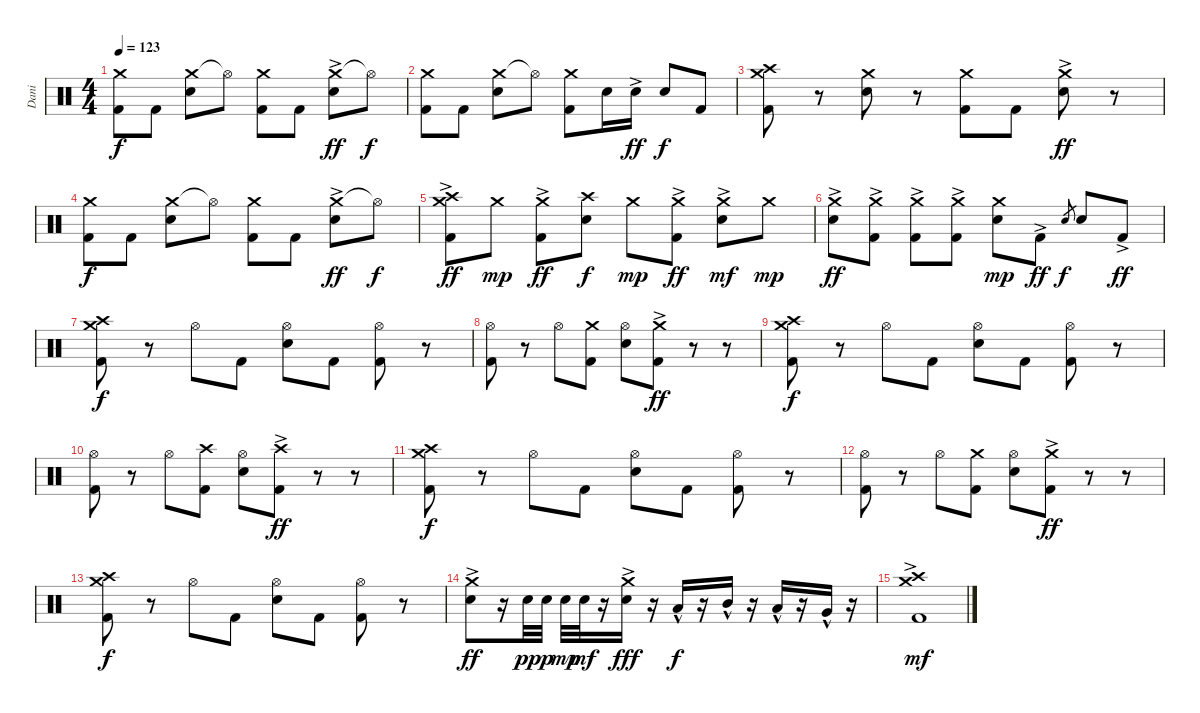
\track ("Dani" "Dani") {instrument percussion}
\staff {score}
\articulation defaults
\ts (4 4)
\tempo 123
\clef neutral
\ks c
("Crash medium (hit)" "Kick (hit) 2").8{dy f} "Kick (hit) 2".8 ("Crash medium (hit)" "Snare (hit) 2").8 "Hi-Hat (open)"{t}.8 ("Crash medium (hit)" "Kick (hit) 2").8 "Kick (hit) 2".8 ("Crash medium (hit)" "Snare (hit) 2"{ac}).8{dy ff} "Hi-Hat (open)"{t}.8{dy f} |
("Crash medium (hit)" "Kick (hit) 2").8 "Kick (hit) 2".8 ("Crash medium (hit)" "Snare (hit) 2").8 "Hi-Hat (open)"{t}.8 ("Crash medium (hit)" "Kick (hit) 2").8 "Snare (hit) 2".16 "Snare (hit) 2"{ac}.16{dy ff} "Snare (hit) 2".8{dy f} "Kick (hit) 2".8 |
("Crash high (hit)" "Crash medium (hit)" "Kick (hit) 2").8 r.8 ("Crash medium (hit)" "Snare (hit) 2").8 r.8 ("Crash medium (hit)" "Kick (hit) 2").8 "Kick (hit) 2".8 ("Crash medium (hit)" "Snare (hit) 2"{ac}).8{dy ff} r.8 |
("Crash medium (hit)" "Kick (hit) 2").8{dy f} "Kick (hit) 2".8 ("Crash medium (hit)" "Snare (hit) 2").8 "Hi-Hat (open)"{t}.8 ("Crash medium (hit)" "Kick (hit) 2").8 "Kick (hit) 2".8 ("Crash medium (hit)" "Snare (hit) 2"{ac}).8{dy ff} "Hi-Hat (open)"{t}.8{dy f} |
("Crash high (hit)" "Crash medium (hit)" "Kick (hit) 2"{ac}).8{dy ff} "Crash medium (hit)".8{dy mp} ("Crash medium (hit)" "Kick (hit) 2"{ac}).8{dy ff} ("Crash high (hit)" "Snare (hit) 2").8{dy f} "Crash medium (hit)".8{dy mp} ("Crash medium (hit)" "Kick (hit) 2"{ac}).8{dy ff} ("Crash medium (hit)" "Snare (hit) 2"{ac}).8{dy mf} "Crash medium (hit)".8{dy mp} |
("Crash medium (hit)"{ac} "Snare (hit) 2").8{dy ff} ("Crash medium (hit)" "Kick (hit) 2"{ac}).8 ("Crash medium (hit)" "Kick (hit) 2"{ac}).8 ("Crash medium (hit)" "Kick (hit) 2"{ac}).8 ("Crash medium (hit)" "Snare (hit) 2").8{dy mp} "Kick (hit) 2"{ac}.8{dy ff} "Snare (hit) 2".8{gr dy f} "Snare (hit) 2".8 "Kick (hit) 2"{ac}.8{dy ff} |
("Crash high (hit)" "Crash medium (hit)" "Kick (hit) 2").8{dy f} r.8 "Hi-Hat (open)".8 "Kick (hit) 2".8 ("Hi-Hat (open)" "Snare (hit) 2").8 "Kick (hit) 2".8 ("Hi-Hat (open)" "Kick (hit) 2").8 r.8 |
("Hi-Hat (open)" "Kick (hit) 2").8 r.8 "Hi-Hat (open)".8 ("Crash medium (hit)" "Kick (hit) 2").8 ("Hi-Hat (open)" "Snare (hit) 2").8 ("Crash medium (hit)" "Kick (hit) 2"{ac}).8{dy ff} r.8 r.8 |
("Crash high (hit)" "Crash medium (hit)" "Kick (hit) 2").8{dy f} r.8 "Hi-Hat (open)".8 "Kick (hit) 2".8 ("Hi-Hat (open)" "Snare (hit) 2").8 "Kick (hit) 2".8 ("Hi-Hat (open)" "Kick (hit) 2").8 r.8 |
("Hi-Hat (open)" "Kick (hit) 2").8 r.8 "Hi-Hat (open)".8 ("Crash high (hit)" "Kick (hit) 2").8 ("Hi-Hat (open)" "Snare (hit) 2").8 ("Crash high (hit)" "Kick (hit) 2"{ac}).8{dy ff} r.8 r.8 |
("Crash high (hit)" "Crash medium (hit)" "Kick (hit) 2").8{dy f} r.8 "Hi-Hat (open)".8 "Kick (hit) 2".8 ("Hi-Hat (open)" "Snare (hit) 2").8 "Kick (hit) 2".8 ("Hi-Hat (open)" "Kick (hit) 2").8 r.8 |
("Hi-Hat (open)" "Kick (hit) 2").8 r.8 "Hi-Hat (open)".8 ("Crash medium (hit)" "Kick (hit) 2").8 ("Hi-Hat (open)" "Snare (hit) 2").8 ("Crash medium (hit)" "Kick (hit) 2"{ac}).8{dy ff} r.8 r.8 |
("Crash high (hit)" "Crash medium (hit)" "Kick (hit) 2").8{dy f} r.8 "Hi-Hat (open)".8 "Kick (hit) 2".8 ("Hi-Hat (open)" "Snare (hit) 2").8 "Kick (hit) 2".8 ("Hi-Hat (open)" "Kick (hit) 2").8 r.8 |
("Crash medium (hit)"{ac} "Snare (hit) 2"{ac}).8{dy ff} r.16 "Snare (hit) 2".32{dy pp} "Snare (hit) 2".32{dy p} "Snare (hit) 2".32{dy mp} "Snare (hit) 2".32{dy mf} r.16 ("Crash medium (hit)"{ac} "Snare (hit) 2"{ac}).16{dy fff} r.16 "Low Floor Tom (hit)"{hac}.16{dy f} r.16 "Mid Tom (hit)"{hac}.16 r.16 "Low Tom (hit)"{hac}.16 r.16 "Very Low Tom (hit)"{hac}.16 r.16 |
("Crash medium (hit)" "Crash high (hit)" "Kick (hit) 2"{ac}).1{dy mf}
